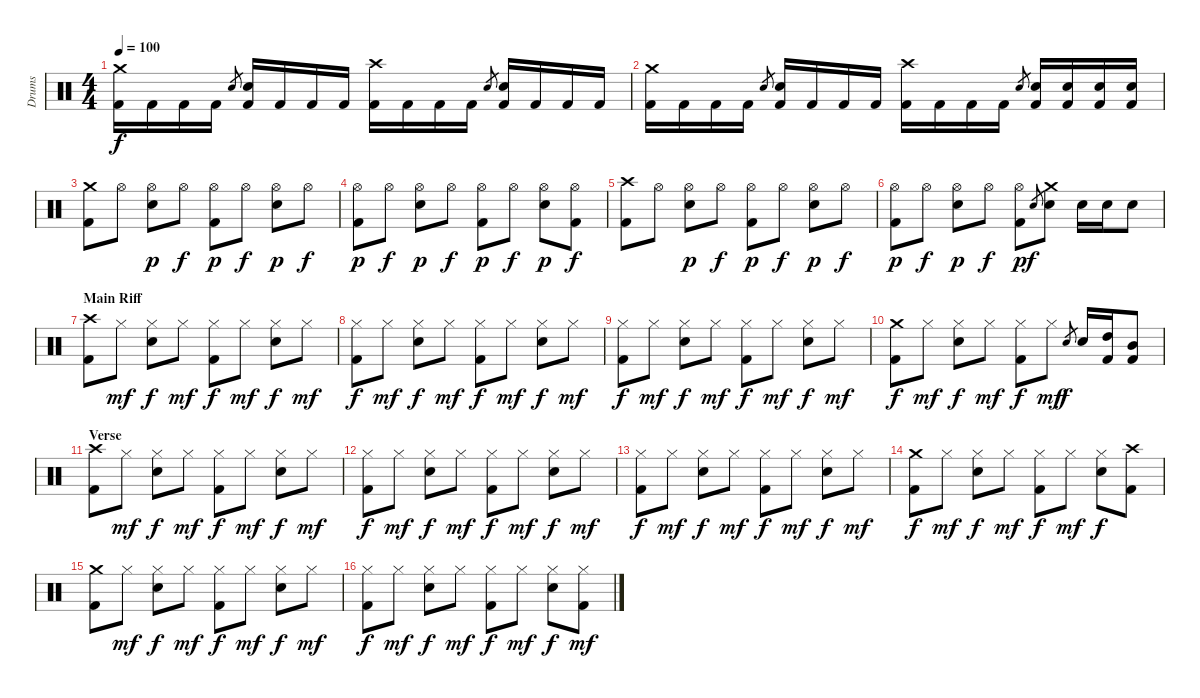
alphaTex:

\track ("Drums" "Drums") {instrument percussion}
\staff {score}
\articulation defaults
\ts (4 4)
\tempo 100
\clef neutral
\ks c
("Crash medium (hit)" "Kick (hit) 2").16{dy f} "Kick (hit) 2".16 "Kick (hit) 2".16 "Kick (hit) 2".16 "Snare (hit) 2".8{gr} ("Snare (hit) 2" "Kick (hit) 2").16 "Kick (hit) 2".16 "Kick (hit) 2".16 "Kick (hit) 2".16 ("Crash high (hit)" "Kick (hit) 2").16 "Kick (hit) 2".16 "Kick (hit) 2".16 "Kick (hit) 2".16 "Snare (hit) 2".8{gr} ("Snare (hit) 2" "Kick (hit) 2").16 "Kick (hit) 2".16 "Kick (hit) 2".16 "Kick (hit) 2".16 |
("Crash medium (hit)" "Kick (hit) 2").16 "Kick (hit) 2".16 "Kick (hit) 2".16 "Kick (hit) 2".16 "Snare (hit) 2".8{gr} ("Snare (hit) 2" "Kick (hit) 2").16 "Kick (hit) 2".16 "Kick (hit) 2".16 "Kick (hit) 2".16 ("Crash high (hit)" "Kick (hit) 2").16 "Kick (hit) 2".16 "Kick (hit) 2".16 "Kick (hit) 2".16 "Snare (hit) 2".8{gr} ("Snare (hit) 2" "Kick (hit) 2").16 ("Snare (hit) 2" "Kick (hit) 2").16 ("Snare (hit) 2" "Kick (hit) 2").16 ("Snare (hit) 2" "Kick (hit) 2").16 |
("Crash medium (hit)" "Kick (hit) 2").8 "Hi-Hat (open)".8 ("Hi-Hat (open)" "Snare (hit) 2").8{dy p} "Hi-Hat (open)".8{dy f} ("Hi-Hat (open)" "Kick (hit) 2").8{dy p} "Hi-Hat (open)".8{dy f} ("Hi-Hat (open)" "Snare (hit) 2").8{dy p} "Hi-Hat (open)".8{dy f} |
("Hi-Hat (open)" "Kick (hit) 2").8{dy p} "Hi-Hat (open)".8{dy f} ("Hi-Hat (open)" "Snare (hit) 2").8{dy p} "Hi-Hat (open)".8{dy f} ("Hi-Hat (open)" "Kick (hit) 2").8{dy p} "Hi-Hat (open)".8{dy f} ("Hi-Hat (open)" "Snare (hit) 2").8{dy p} ("Hi-Hat (open)" "Kick (hit) 2").8{dy f} |
("Crash high (hit)" "Kick (hit) 2").8 "Hi-Hat (open)".8 ("Hi-Hat (open)" "Snare (hit) 2").8{dy p} "Hi-Hat (open)".8{dy f} ("Hi-Hat (open)" "Kick (hit) 2").8{dy p} "Hi-Hat (open)".8{dy f} ("Hi-Hat (open)" "Snare (hit) 2").8{dy p} "Hi-Hat (open)".8{dy f} |
("Hi-Hat (open)" "Kick (hit) 2").8{dy p} "Hi-Hat (open)".8{dy f} ("Hi-Hat (open)" "Snare (hit) 2").8{dy p} "Hi-Hat (open)".8{dy f} ("Hi-Hat (open)" "Kick (hit) 2").8{dy p} "Snare (hit) 2".8{gr dy f} ("Crash medium (hit)" "Snare (hit) 2").8 "Snare (hit) 2".16 "Snare (hit) 2".16 "Snare (hit) 2".8 |
\section ("" "Main Riff")
("Crash high (hit)" "Kick (hit) 2").8 "Hi-Hat (closed)".8{dy mf} ("Hi-Hat (closed)" "Snare (hit) 2").8{dy f} "Hi-Hat (closed)".8{dy mf} ("Hi-Hat (closed)" "Kick (hit) 2").8{dy f} "Hi-Hat (closed)".8{dy mf} ("Hi-Hat (closed)" "Snare (hit) 2").8{dy f} "Hi-Hat (closed)".8{dy mf} |
("Hi-Hat (closed)" "Kick (hit) 2").8{dy f} "Hi-Hat (closed)".8{dy mf} ("Hi-Hat (closed)" "Snare (hit) 2").8{dy f} "Hi-Hat (closed)".8{dy mf} ("Hi-Hat (closed)" "Kick (hit) 2").8{dy f} "Hi-Hat (closed)".8{dy mf} ("Hi-Hat (closed)" "Snare (hit) 2").8{dy f} "Hi-Hat (closed)".8{dy mf} |
("Hi-Hat (closed)" "Kick (hit) 2").8{dy f} "Hi-Hat (closed)".8{dy mf} ("Hi-Hat (closed)" "Snare (hit) 2").8{dy f} "Hi-Hat (closed)".8{dy mf} ("Hi-Hat (closed)" "Kick (hit) 2").8{dy f} "Hi-Hat (closed)".8{dy mf} ("Hi-Hat (closed)" "Snare (hit) 2").8{dy f} "Hi-Hat (closed)".8{dy mf} |
("Crash medium (hit)" "Kick (hit) 2").8{dy f} "Hi-Hat (closed)".8{dy mf} ("Hi-Hat (closed)" "Snare (hit) 2").8{dy f} "Hi-Hat (closed)".8{dy mf} ("Hi-Hat (closed)" "Kick (hit) 2").8{dy f} "Hi-Hat (closed)".8{dy mf} "Snare (hit) 2".8{gr dy f} "Snare (hit) 2".16 ("High Tom (hit)" "Kick (hit) 2").16 ("Mid Tom (hit)" "Kick (hit) 2").8 |
\section ("" "Verse")
("Crash high (hit)" "Kick (hit) 2").8 "Hi-Hat (closed)".8{dy mf} ("Hi-Hat (closed)" "Snare (hit) 2").8{dy f} "Hi-Hat (closed)".8{dy mf} ("Hi-Hat (closed)" "Kick (hit) 2").8{dy f} "Hi-Hat (closed)".8{dy mf} ("Hi-Hat (closed)" "Snare (hit) 2").8{dy f} "Hi-Hat (closed)".8{dy mf} |
("Hi-Hat (closed)" "Kick (hit) 2").8{dy f} "Hi-Hat (closed)".8{dy mf} ("Hi-Hat (closed)" "Snare (hit) 2").8{dy f} "Hi-Hat (closed)".8{dy mf} ("Hi-Hat (closed)" "Kick (hit) 2").8{dy f} "Hi-Hat (closed)".8{dy mf} ("Hi-Hat (closed)" "Snare (hit) 2").8{dy f} "Hi-Hat (closed)".8{dy mf} |
("Hi-Hat (closed)" "Kick (hit) 2").8{dy f} "Hi-Hat (closed)".8{dy mf} ("Hi-Hat (closed)" "Snare (hit) 2").8{dy f} "Hi-Hat (closed)".8{dy mf} ("Hi-Hat (closed)" "Kick (hit) 2").8{dy f} "Hi-Hat (closed)".8{dy mf} ("Hi-Hat (closed)" "Snare (hit) 2").8{dy f} "Hi-Hat (closed)".8{dy mf} |
("Crash medium (hit)" "Kick (hit) 2").8{dy f} "Hi-Hat (closed)".8{dy mf} ("Hi-Hat (closed)" "Snare (hit) 2").8{dy f} "Hi-Hat (closed)".8{dy mf} ("Hi-Hat (closed)" "Kick (hit) 2").8{dy f} "Hi-Hat (closed)".8{dy mf} ("Hi-Hat (closed)" "Snare (hit) 2").8{dy f} ("Crash high (hit)" "Kick (hit) 2").8 |
("Crash medium (hit)" "Kick (hit) 2").8 "Hi-Hat (closed)".8{dy mf} ("Hi-Hat (closed)" "Snare (hit) 2").8{dy f} "Hi-Hat (closed)".8{dy mf} ("Hi-Hat (closed)" "Kick (hit) 2").8{dy f} "Hi-Hat (closed)".8{dy mf} ("Hi-Hat (closed)" "Snare (hit) 2").8{dy f} "Hi-Hat (closed)".8{dy mf} |
("Hi-Hat (closed)" "Kick (hit) 2").8{dy f} "Hi-Hat (closed)".8{dy mf} ("Hi-Hat (closed)" "Snare (hit) 2").8{dy f} "Hi-Hat (closed)".8{dy mf} ("Hi-Hat (closed)" "Kick (hit) 2").8{dy f} "Hi-Hat (closed)".8{dy mf} ("Hi-Hat (closed)" "Snare (hit) 2").8{dy f} ("Hi-Hat (closed)" "Kick (hit) 2").8{dy mf}
